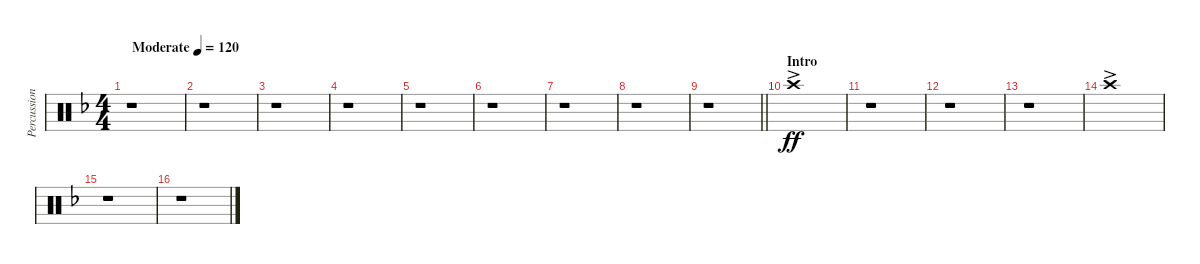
\track ("Percussion" "Percussion") {instrument percussion}
\staff {score}
\articulation defaults
\ts (4 4)
\tempo (120 "Moderate")
\clef neutral
\ks f
r.1{dy ff} |
r.1 |
r.1 |
r.1 |
r.1 |
r.1 |
r.1 |
r.1 |
\barLineRight lightlight
r.1 |
\section ("" "Intro")
"Crash high (hit)"{ac}.1 |
r.1 |
r.1 |
r.1 |
"Crash high (hit)"{ac}.1 |
r.1 |
r.1
